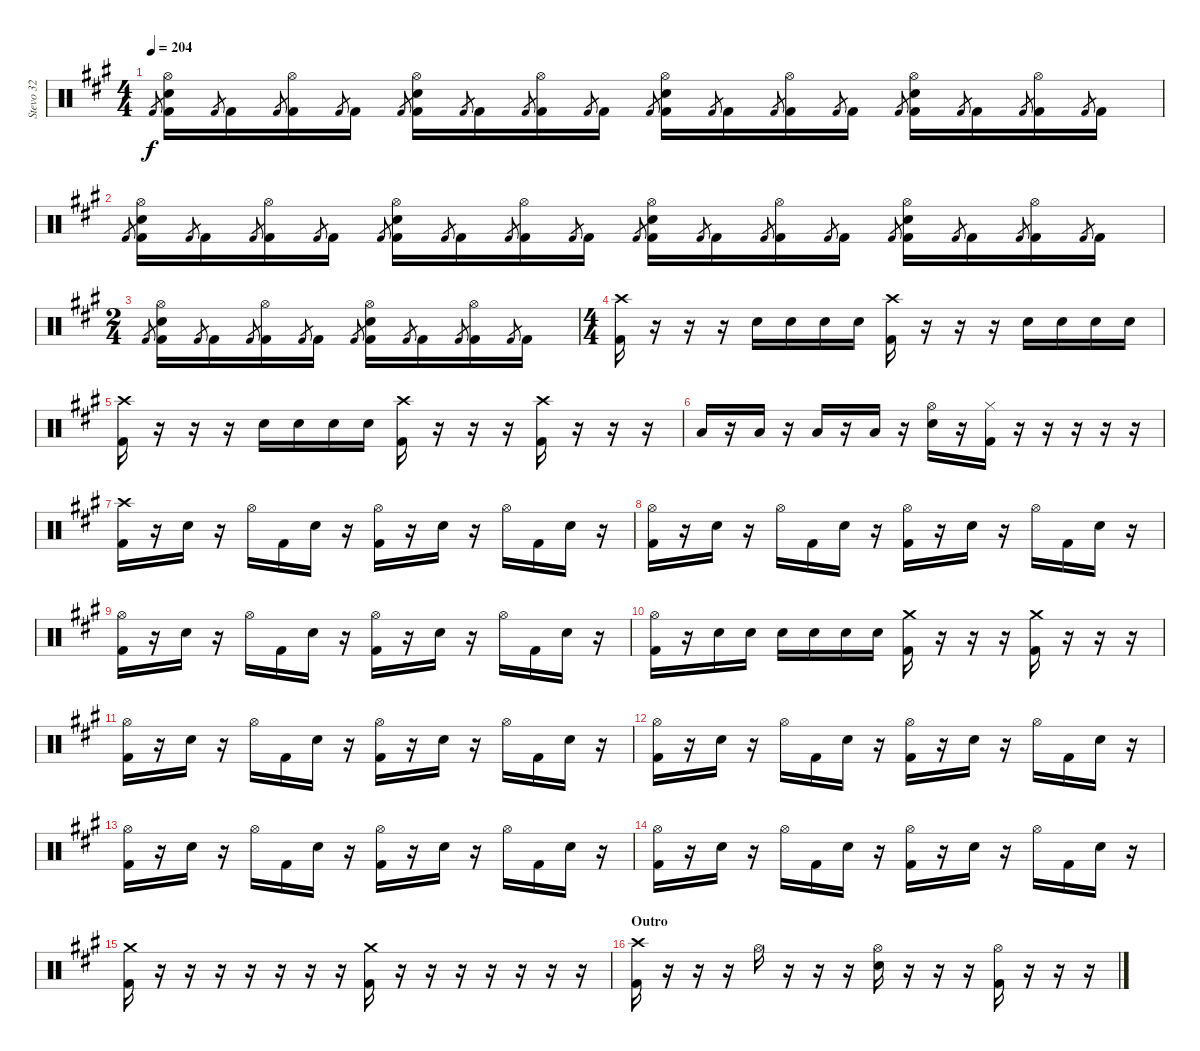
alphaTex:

\track ("Stevo 32" "Stevo 32") {instrument percussion}
\staff {score}
\articulation defaults
\ts (4 4)
\tempo 204
\clef neutral
\ks a "Kick (hit) 2".8{gr dy f}
("Hi-Hat (open)" "Snare (hit) 2" "Kick (hit) 2").16 "Kick (hit) 2".8{gr} "Kick (hit) 2".16 "Kick (hit) 2".8{gr} ("Hi-Hat (open)" "Kick (hit) 2").16 "Kick (hit) 2".8{gr} "Kick (hit) 2".16 "Kick (hit) 2".8{gr} ("Hi-Hat (open)" "Snare (hit) 2" "Kick (hit) 2").16 "Kick (hit) 2".8{gr} "Kick (hit) 2".16 "Kick (hit) 2".8{gr} ("Hi-Hat (open)" "Kick (hit) 2").16 "Kick (hit) 2".8{gr} "Kick (hit) 2".16 "Kick (hit) 2".8{gr} ("Hi-Hat (open)" "Snare (hit) 2" "Kick (hit) 2").16 "Kick (hit) 2".8{gr} "Kick (hit) 2".16 "Kick (hit) 2".8{gr} ("Hi-Hat (open)" "Kick (hit) 2").16 "Kick (hit) 2".8{gr} "Kick (hit) 2".16 "Kick (hit) 2".8{gr} ("Hi-Hat (open)" "Snare (hit) 2" "Kick (hit) 2").16 "Kick (hit) 2".8{gr} "Kick (hit) 2".16 "Kick (hit) 2".8{gr} ("Hi-Hat (open)" "Kick (hit) 2").16 "Kick (hit) 2".8{gr} "Kick (hit) 2".16 |
"Kick (hit) 2".8{gr} ("Hi-Hat (open)" "Snare (hit) 2" "Kick (hit) 2").16 "Kick (hit) 2".8{gr} "Kick (hit) 2".16 "Kick (hit) 2".8{gr} ("Hi-Hat (open)" "Kick (hit) 2").16 "Kick (hit) 2".8{gr} "Kick (hit) 2".16 "Kick (hit) 2".8{gr} ("Hi-Hat (open)" "Snare (hit) 2" "Kick (hit) 2").16 "Kick (hit) 2".8{gr} "Kick (hit) 2".16 "Kick (hit) 2".8{gr} ("Hi-Hat (open)" "Kick (hit) 2").16 "Kick (hit) 2".8{gr} "Kick (hit) 2".16 "Kick (hit) 2".8{gr} ("Hi-Hat (open)" "Snare (hit) 2" "Kick (hit) 2").16 "Kick (hit) 2".8{gr} "Kick (hit) 2".16 "Kick (hit) 2".8{gr} ("Hi-Hat (open)" "Kick (hit) 2").16 "Kick (hit) 2".8{gr} "Kick (hit) 2".16 "Kick (hit) 2".8{gr} ("Hi-Hat (open)" "Snare (hit) 2" "Kick (hit) 2").16 "Kick (hit) 2".8{gr} "Kick (hit) 2".16 "Kick (hit) 2".8{gr} ("Hi-Hat (open)" "Kick (hit) 2").16 "Kick (hit) 2".8{gr} "Kick (hit) 2".16 |
\ts (2 4)
"Kick (hit) 2".8{gr} ("Hi-Hat (open)" "Snare (hit) 2" "Kick (hit) 2").16 "Kick (hit) 2".8{gr} "Kick (hit) 2".16 "Kick (hit) 2".8{gr} ("Hi-Hat (open)" "Kick (hit) 2").16 "Kick (hit) 2".8{gr} "Kick (hit) 2".16 "Kick (hit) 2".8{gr} ("Hi-Hat (open)" "Snare (hit) 2" "Kick (hit) 2").16 "Kick (hit) 2".8{gr} "Kick (hit) 2".16 "Kick (hit) 2".8{gr} ("Hi-Hat (open)" "Kick (hit) 2").16 "Kick (hit) 2".8{gr} "Kick (hit) 2".16 |
\ts (4 4)
("Crash high (hit)" "Kick (hit) 2").16 r.16 r.16 r.16 "Snare (hit) 2".16 "Snare (hit) 2".16 "Snare (hit) 2".16 "Snare (hit) 2".16 ("Crash high (hit)" "Kick (hit) 2").16 r.16 r.16 r.16 "Snare (hit) 2".16 "Snare (hit) 2".16 "Snare (hit) 2".16 "Snare (hit) 2".16 |
("Crash high (hit)" "Kick (hit) 2").16 r.16 r.16 r.16 "Snare (hit) 2".16 "Snare (hit) 2".16 "Snare (hit) 2".16 "Snare (hit) 2".16 ("Crash high (hit)" "Kick (hit) 2").16 r.16 r.16 r.16 ("Crash high (hit)" "Kick (hit) 2").16 r.16 r.16 r.16 |
"Low Floor Tom (hit)".16 r.16 "Low Floor Tom (hit)".16 r.16 "Low Floor Tom (hit)".16 r.16 "Low Floor Tom (hit)".16 r.16 ("Hi-Hat (open)" "Snare (hit) 2").16 r.16 ("Hi-Hat (closed)" "Kick (hit) 2").16 r.16 r.16 r.16 r.16 r.16 |
("Crash high (hit)" "Kick (hit) 2").16 r.16 "Snare (hit) 2".16 r.16 "Hi-Hat (open)".16 "Kick (hit) 2".16 "Snare (hit) 2".16 r.16 ("Hi-Hat (open)" "Kick (hit) 2").16 r.16 "Snare (hit) 2".16 r.16 "Hi-Hat (open)".16 "Kick (hit) 2".16 "Snare (hit) 2".16 r.16 |
("Hi-Hat (open)" "Kick (hit) 2").16 r.16 "Snare (hit) 2".16 r.16 "Hi-Hat (open)".16 "Kick (hit) 2".16 "Snare (hit) 2".16 r.16 ("Hi-Hat (open)" "Kick (hit) 2").16 r.16 "Snare (hit) 2".16 r.16 "Hi-Hat (open)".16 "Kick (hit) 2".16 "Snare (hit) 2".16 r.16 |
("Hi-Hat (open)" "Kick (hit) 2").16 r.16 "Snare (hit) 2".16 r.16 "Hi-Hat (open)".16 "Kick (hit) 2".16 "Snare (hit) 2".16 r.16 ("Hi-Hat (open)" "Kick (hit) 2").16 r.16 "Snare (hit) 2".16 r.16 "Hi-Hat (open)".16 "Kick (hit) 2".16 "Snare (hit) 2".16 r.16 |
("Hi-Hat (open)" "Kick (hit) 2").16 r.16 "Snare (hit) 2".16 "Snare (hit) 2".16 "Snare (hit) 2".16 "Snare (hit) 2".16 "Snare (hit) 2".16 "Snare (hit) 2".16 ("Crash medium (hit)" "Kick (hit) 2").16 r.16 r.16 r.16 ("Crash medium (hit)" "Kick (hit) 2").16 r.16 r.16 r.16 |
("Hi-Hat (open)" "Kick (hit) 2").16 r.16 "Snare (hit) 2".16 r.16 "Hi-Hat (open)".16 "Kick (hit) 2".16 "Snare (hit) 2".16 r.16 ("Hi-Hat (open)" "Kick (hit) 2").16 r.16 "Snare (hit) 2".16 r.16 "Hi-Hat (open)".16 "Kick (hit) 2".16 "Snare (hit) 2".16 r.16 |
("Hi-Hat (open)" "Kick (hit) 2").16 r.16 "Snare (hit) 2".16 r.16 "Hi-Hat (open)".16 "Kick (hit) 2".16 "Snare (hit) 2".16 r.16 ("Hi-Hat (open)" "Kick (hit) 2").16 r.16 "Snare (hit) 2".16 r.16 "Hi-Hat (open)".16 "Kick (hit) 2".16 "Snare (hit) 2".16 r.16 |
("Hi-Hat (open)" "Kick (hit) 2").16 r.16 "Snare (hit) 2".16 r.16 "Hi-Hat (open)".16 "Kick (hit) 2".16 "Snare (hit) 2".16 r.16 ("Hi-Hat (open)" "Kick (hit) 2").16 r.16 "Snare (hit) 2".16 r.16 "Hi-Hat (open)".16 "Kick (hit) 2".16 "Snare (hit) 2".16 r.16 |
("Hi-Hat (open)" "Kick (hit) 2").16 r.16 "Snare (hit) 2".16 r.16 "Hi-Hat (open)".16 "Kick (hit) 2".16 "Snare (hit) 2".16 r.16 ("Hi-Hat (open)" "Kick (hit) 2").16 r.16 "Snare (hit) 2".16 r.16 "Hi-Hat (open)".16 "Kick (hit) 2".16 "Snare (hit) 2".16 r.16 |
("Crash medium (hit)" "Kick (hit) 2").16 r.16 r.16 r.16 r.16 r.16 r.16 r.16 ("Crash medium (hit)" "Kick (hit) 2").16 r.16 r.16 r.16 r.16 r.16 r.16 r.16 |
\section ("" "Outro")
("Crash high (hit)" "Kick (hit) 2").16 r.16 r.16 r.16 "Hi-Hat (open)".16 r.16 r.16 r.16 ("Hi-Hat (open)" "Snare (hit) 2").16 r.16 r.16 r.16 ("Hi-Hat (open)" "Kick (hit) 2").16 r.16 r.16 r.16
